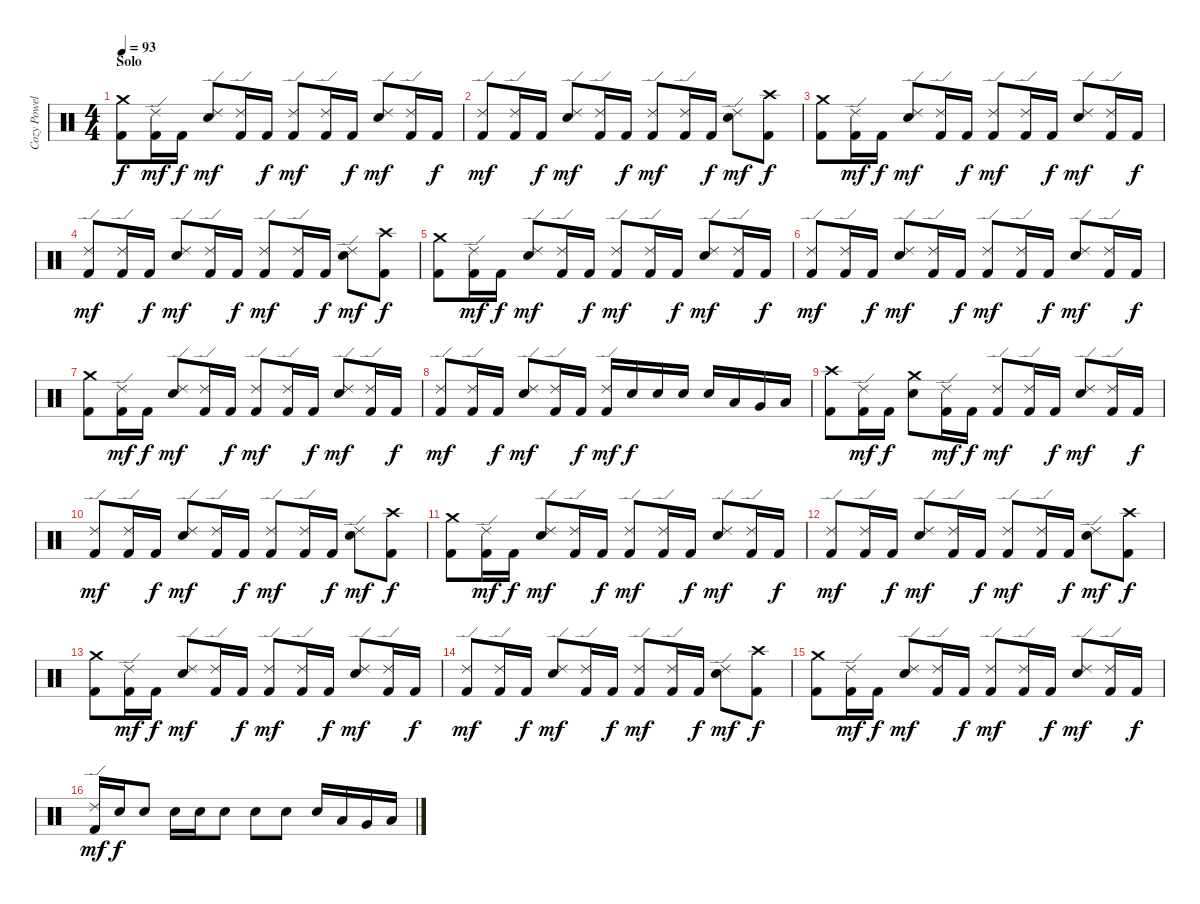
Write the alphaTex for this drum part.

\track ("Cozy Powell" "Cozy Powel") {instrument percussion}
\staff {score}
\articulation defaults
\ts (4 4)
\section ("" "Solo")
\tempo 93
\clef neutral
\ks c
("Kick (hit) 2" "Crash medium (hit)").8{dy f} ("Kick (hit) 2" "Ride (edge) 2").16{dy mf} "Kick (hit) 2".16{dy f} ("Ride (edge) 2" "Snare (hit) 2").8{dy mf} ("Kick (hit) 2" "Ride (edge) 2").16 "Kick (hit) 2".16{dy f} ("Kick (hit) 2" "Ride (edge) 2").8{dy mf} ("Kick (hit) 2" "Ride (edge) 2").16 "Kick (hit) 2".16{dy f} ("Ride (edge) 2" "Snare (hit) 2").8{dy mf} ("Kick (hit) 2" "Ride (edge) 2").16 "Kick (hit) 2".16{dy f} |
("Kick (hit) 2" "Ride (edge) 2").8{dy mf} ("Kick (hit) 2" "Ride (edge) 2").16 "Kick (hit) 2".16{dy f} ("Ride (edge) 2" "Snare (hit) 2").8{dy mf} ("Kick (hit) 2" "Ride (edge) 2").16 "Kick (hit) 2".16{dy f} ("Kick (hit) 2" "Ride (edge) 2").8{dy mf} ("Kick (hit) 2" "Ride (edge) 2").16 "Kick (hit) 2".16{dy f} ("Ride (edge) 2" "Snare (hit) 2").8{dy mf} ("Kick (hit) 2" "Crash high (hit)").8{dy f} |
("Kick (hit) 2" "Crash medium (hit)").8 ("Kick (hit) 2" "Ride (edge) 2").16{dy mf} "Kick (hit) 2".16{dy f} ("Ride (edge) 2" "Snare (hit) 2").8{dy mf} ("Kick (hit) 2" "Ride (edge) 2").16 "Kick (hit) 2".16{dy f} ("Kick (hit) 2" "Ride (edge) 2").8{dy mf} ("Kick (hit) 2" "Ride (edge) 2").16 "Kick (hit) 2".16{dy f} ("Ride (edge) 2" "Snare (hit) 2").8{dy mf} ("Kick (hit) 2" "Ride (edge) 2").16 "Kick (hit) 2".16{dy f} |
("Kick (hit) 2" "Ride (edge) 2").8{dy mf} ("Kick (hit) 2" "Ride (edge) 2").16 "Kick (hit) 2".16{dy f} ("Ride (edge) 2" "Snare (hit) 2").8{dy mf} ("Kick (hit) 2" "Ride (edge) 2").16 "Kick (hit) 2".16{dy f} ("Kick (hit) 2" "Ride (edge) 2").8{dy mf} ("Kick (hit) 2" "Ride (edge) 2").16 "Kick (hit) 2".16{dy f} ("Ride (edge) 2" "Snare (hit) 2").8{dy mf} ("Kick (hit) 2" "Crash high (hit)").8{dy f} |
("Kick (hit) 2" "Crash medium (hit)").8 ("Kick (hit) 2" "Ride (edge) 2").16{dy mf} "Kick (hit) 2".16{dy f} ("Ride (edge) 2" "Snare (hit) 2").8{dy mf} ("Kick (hit) 2" "Ride (edge) 2").16 "Kick (hit) 2".16{dy f} ("Kick (hit) 2" "Ride (edge) 2").8{dy mf} ("Kick (hit) 2" "Ride (edge) 2").16 "Kick (hit) 2".16{dy f} ("Ride (edge) 2" "Snare (hit) 2").8{dy mf} ("Kick (hit) 2" "Ride (edge) 2").16 "Kick (hit) 2".16{dy f} |
("Kick (hit) 2" "Ride (edge) 2").8{dy mf} ("Kick (hit) 2" "Ride (edge) 2").16 "Kick (hit) 2".16{dy f} ("Ride (edge) 2" "Snare (hit) 2").8{dy mf} ("Kick (hit) 2" "Ride (edge) 2").16 "Kick (hit) 2".16{dy f} ("Kick (hit) 2" "Ride (edge) 2").8{dy mf} ("Kick (hit) 2" "Ride (edge) 2").16 "Kick (hit) 2".16{dy f} ("Ride (edge) 2" "Snare (hit) 2").8{dy mf} ("Kick (hit) 2" "Ride (edge) 2").16 "Kick (hit) 2".16{dy f} |
("Kick (hit) 2" "Crash medium (hit)").8 ("Kick (hit) 2" "Ride (edge) 2").16{dy mf} "Kick (hit) 2".16{dy f} ("Ride (edge) 2" "Snare (hit) 2").8{dy mf} ("Kick (hit) 2" "Ride (edge) 2").16 "Kick (hit) 2".16{dy f} ("Kick (hit) 2" "Ride (edge) 2").8{dy mf} ("Kick (hit) 2" "Ride (edge) 2").16 "Kick (hit) 2".16{dy f} ("Ride (edge) 2" "Snare (hit) 2").8{dy mf} ("Kick (hit) 2" "Ride (edge) 2").16 "Kick (hit) 2".16{dy f} |
("Kick (hit) 2" "Ride (edge) 2").8{dy mf} ("Kick (hit) 2" "Ride (edge) 2").16 "Kick (hit) 2".16{dy f} ("Ride (edge) 2" "Snare (hit) 2").8{dy mf} ("Kick (hit) 2" "Ride (edge) 2").16 "Kick (hit) 2".16{dy f} ("Kick (hit) 2" "Ride (edge) 2").16{dy mf} "Snare (hit) 2".16{dy f} "Snare (hit) 2".16 "Snare (hit) 2".16 "Snare (hit) 2".16 "Low Tom (hit)".16 "Very Low Tom (hit)".16 "Low Floor Tom (hit)".16 |
("Kick (hit) 2" "Crash high (hit)").8 ("Kick (hit) 2" "Ride (edge) 2").16{dy mf} "Kick (hit) 2".16{dy f} ("Crash medium (hit)" "Snare (hit) 2").8 ("Kick (hit) 2" "Ride (edge) 2").16{dy mf} "Kick (hit) 2".16{dy f} ("Kick (hit) 2" "Ride (edge) 2").8{dy mf} ("Kick (hit) 2" "Ride (edge) 2").16 "Kick (hit) 2".16{dy f} ("Ride (edge) 2" "Snare (hit) 2").8{dy mf} ("Kick (hit) 2" "Ride (edge) 2").16 "Kick (hit) 2".16{dy f} |
("Kick (hit) 2" "Ride (edge) 2").8{dy mf} ("Kick (hit) 2" "Ride (edge) 2").16 "Kick (hit) 2".16{dy f} ("Ride (edge) 2" "Snare (hit) 2").8{dy mf} ("Kick (hit) 2" "Ride (edge) 2").16 "Kick (hit) 2".16{dy f} ("Kick (hit) 2" "Ride (edge) 2").8{dy mf} ("Kick (hit) 2" "Ride (edge) 2").16 "Kick (hit) 2".16{dy f} ("Ride (edge) 2" "Snare (hit) 2").8{dy mf} ("Kick (hit) 2" "Crash high (hit)").8{dy f} |
("Kick (hit) 2" "Crash medium (hit)").8 ("Kick (hit) 2" "Ride (edge) 2").16{dy mf} "Kick (hit) 2".16{dy f} ("Ride (edge) 2" "Snare (hit) 2").8{dy mf} ("Kick (hit) 2" "Ride (edge) 2").16 "Kick (hit) 2".16{dy f} ("Kick (hit) 2" "Ride (edge) 2").8{dy mf} ("Kick (hit) 2" "Ride (edge) 2").16 "Kick (hit) 2".16{dy f} ("Ride (edge) 2" "Snare (hit) 2").8{dy mf} ("Kick (hit) 2" "Ride (edge) 2").16 "Kick (hit) 2".16{dy f} |
("Kick (hit) 2" "Ride (edge) 2").8{dy mf} ("Kick (hit) 2" "Ride (edge) 2").16 "Kick (hit) 2".16{dy f} ("Ride (edge) 2" "Snare (hit) 2").8{dy mf} ("Kick (hit) 2" "Ride (edge) 2").16 "Kick (hit) 2".16{dy f} ("Kick (hit) 2" "Ride (edge) 2").8{dy mf} ("Kick (hit) 2" "Ride (edge) 2").16 "Kick (hit) 2".16{dy f} ("Ride (edge) 2" "Snare (hit) 2").8{dy mf} ("Kick (hit) 2" "Crash high (hit)").8{dy f} |
("Kick (hit) 2" "Crash medium (hit)").8 ("Kick (hit) 2" "Ride (edge) 2").16{dy mf} "Kick (hit) 2".16{dy f} ("Ride (edge) 2" "Snare (hit) 2").8{dy mf} ("Kick (hit) 2" "Ride (edge) 2").16 "Kick (hit) 2".16{dy f} ("Kick (hit) 2" "Ride (edge) 2").8{dy mf} ("Kick (hit) 2" "Ride (edge) 2").16 "Kick (hit) 2".16{dy f} ("Ride (edge) 2" "Snare (hit) 2").8{dy mf} ("Kick (hit) 2" "Ride (edge) 2").16 "Kick (hit) 2".16{dy f} |
("Kick (hit) 2" "Ride (edge) 2").8{dy mf} ("Kick (hit) 2" "Ride (edge) 2").16 "Kick (hit) 2".16{dy f} ("Ride (edge) 2" "Snare (hit) 2").8{dy mf} ("Kick (hit) 2" "Ride (edge) 2").16 "Kick (hit) 2".16{dy f} ("Kick (hit) 2" "Ride (edge) 2").8{dy mf} ("Kick (hit) 2" "Ride (edge) 2").16 "Kick (hit) 2".16{dy f} ("Ride (edge) 2" "Snare (hit) 2").8{dy mf} ("Kick (hit) 2" "Crash high (hit)").8{dy f} |
("Kick (hit) 2" "Crash medium (hit)").8 ("Kick (hit) 2" "Ride (edge) 2").16{dy mf} "Kick (hit) 2".16{dy f} ("Ride (edge) 2" "Snare (hit) 2").8{dy mf} ("Kick (hit) 2" "Ride (edge) 2").16 "Kick (hit) 2".16{dy f} ("Kick (hit) 2" "Ride (edge) 2").8{dy mf} ("Kick (hit) 2" "Ride (edge) 2").16 "Kick (hit) 2".16{dy f} ("Ride (edge) 2" "Snare (hit) 2").8{dy mf} ("Kick (hit) 2" "Ride (edge) 2").16 "Kick (hit) 2".16{dy f} |
("Kick (hit) 2" "Ride (edge) 2").16{dy mf} "Snare (hit) 2".16{dy f} "Snare (hit) 2".8 "Snare (hit) 2".16 "Snare (hit) 2".16 "Snare (hit) 2".8 "Snare (hit) 2".8 "Snare (hit) 2".8 "Snare (hit) 2".16 "Low Tom (hit)".16 "Very Low Tom (hit)".16 "Low Floor Tom (hit)".16
